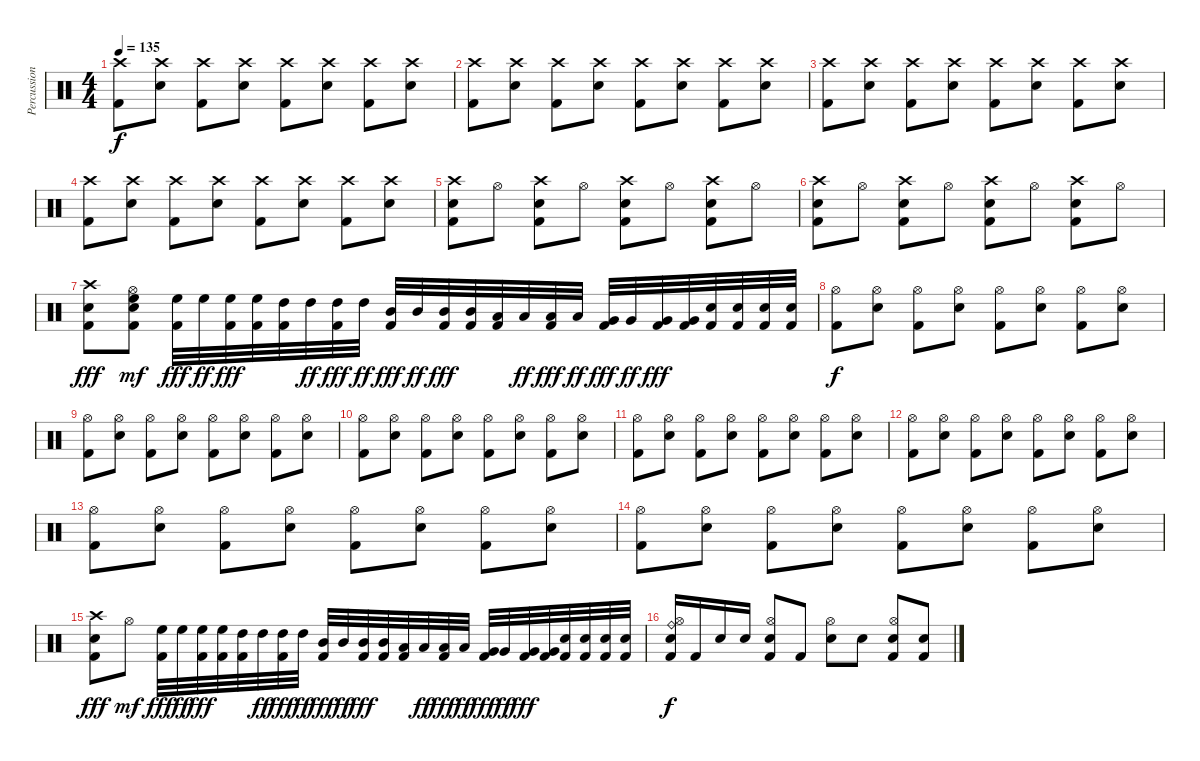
\track ("Percussions" "Percussion") {instrument percussion}
\staff {score}
\articulation defaults
\ts (4 4)
\tempo 135
\clef neutral
\ks c
("Crash high (hit)" "Kick (hit) 2").8{dy f} ("Crash high (hit)" "Electric Snare (hit)").8 ("Crash high (hit)" "Kick (hit) 2").8 ("Crash high (hit)" "Electric Snare (hit)").8 ("Crash high (hit)" "Kick (hit) 2").8 ("Crash high (hit)" "Electric Snare (hit)").8 ("Crash high (hit)" "Kick (hit) 2").8 ("Crash high (hit)" "Electric Snare (hit)").8 |
("Crash high (hit)" "Kick (hit) 2").8 ("Crash high (hit)" "Electric Snare (hit)").8 ("Crash high (hit)" "Kick (hit) 2").8 ("Crash high (hit)" "Electric Snare (hit)").8 ("Crash high (hit)" "Kick (hit) 2").8 ("Crash high (hit)" "Electric Snare (hit)").8 ("Crash high (hit)" "Kick (hit) 2").8 ("Crash high (hit)" "Electric Snare (hit)").8 |
("Crash high (hit)" "Kick (hit) 2").8 ("Crash high (hit)" "Electric Snare (hit)").8 ("Crash high (hit)" "Kick (hit) 2").8 ("Crash high (hit)" "Electric Snare (hit)").8 ("Crash high (hit)" "Kick (hit) 2").8 ("Crash high (hit)" "Electric Snare (hit)").8 ("Crash high (hit)" "Kick (hit) 2").8 ("Crash high (hit)" "Electric Snare (hit)").8 |
("Crash high (hit)" "Kick (hit) 2").8 ("Crash high (hit)" "Electric Snare (hit)").8 ("Crash high (hit)" "Kick (hit) 2").8 ("Crash high (hit)" "Electric Snare (hit)").8 ("Crash high (hit)" "Kick (hit) 2").8 ("Crash high (hit)" "Electric Snare (hit)").8 ("Crash high (hit)" "Kick (hit) 2").8 ("Crash high (hit)" "Electric Snare (hit)").8 |
("Crash high (hit)" "Electric Snare (hit)" "Kick (hit) 2").8 "Hi-Hat (open)".8 ("Crash high (hit)" "Electric Snare (hit)" "Kick (hit) 2").8 "Hi-Hat (open)".8 ("Crash high (hit)" "Electric Snare (hit)" "Kick (hit) 2").8 "Hi-Hat (open)".8 ("Crash high (hit)" "Electric Snare (hit)" "Kick (hit) 2").8 "Hi-Hat (open)".8 |
("Crash high (hit)" "Electric Snare (hit)" "Kick (hit) 2").8 "Hi-Hat (open)".8 ("Crash high (hit)" "Electric Snare (hit)" "Kick (hit) 2").8 "Hi-Hat (open)".8 ("Crash high (hit)" "Electric Snare (hit)" "Kick (hit) 2").8 "Hi-Hat (open)".8 ("Crash high (hit)" "Electric Snare (hit)" "Kick (hit) 2").8 "Hi-Hat (open)".8 |
("Crash high (hit)" "Electric Snare (hit)" "Kick (hit) 2").8{dy fff} ("Hi-Hat (open)" "High Floor Tom (hit)" "Electric Snare (hit)" "Kick (hit) 2").8{dy mf} ("High Floor Tom (hit)" "Kick (hit) 2").32{dy fff} "High Floor Tom (hit)".32{dy ff} ("High Floor Tom (hit)" "Kick (hit) 2").32{dy fff} ("High Floor Tom (hit)" "Kick (hit) 2").32 ("High Tom (hit)" "Kick (hit) 2").32 "High Tom (hit)".32{dy ff} ("High Tom (hit)" "Kick (hit) 2").32{dy fff} "High Tom (hit)".32{dy ff} ("Mid Tom (hit)" "Kick (hit) 2").32{dy fff} "Mid Tom (hit)".32{dy ff} ("Mid Tom (hit)" "Kick (hit) 2").32{dy fff} ("Mid Tom (hit)" "Kick (hit) 2").32 ("Low Tom (hit)" "Kick (hit) 2").32 "Low Tom (hit)".32{dy ff} ("Low Tom (hit)" "Kick (hit) 2").32{dy fff} "Low Tom (hit)".32{dy ff} ("Very Low Tom (hit)" "Kick (hit) 2").32{dy fff} "Very Low Tom (hit)".32{dy ff} ("Very Low Tom (hit)" "Kick (hit) 2").32{dy fff} ("Very Low Tom (hit)" "Kick (hit) 2").32 ("Electric Snare (hit)" "Kick (hit) 2").32 ("Electric Snare (hit)" "Kick (hit) 2").32 ("Electric Snare (hit)" "Kick (hit) 2").32 ("Electric Snare (hit)" "Kick (hit) 2").32 |
("Hi-Hat (open)" "Kick (hit) 2").8{dy f} ("Hi-Hat (open)" "Electric Snare (hit)").8 ("Hi-Hat (open)" "Kick (hit) 2").8 ("Hi-Hat (open)" "Electric Snare (hit)").8 ("Hi-Hat (open)" "Kick (hit) 2").8 ("Hi-Hat (open)" "Electric Snare (hit)").8 ("Hi-Hat (open)" "Kick (hit) 2").8 ("Hi-Hat (open)" "Electric Snare (hit)").8 |
("Hi-Hat (open)" "Kick (hit) 2").8 ("Hi-Hat (open)" "Electric Snare (hit)").8 ("Hi-Hat (open)" "Kick (hit) 2").8 ("Hi-Hat (open)" "Electric Snare (hit)").8 ("Hi-Hat (open)" "Kick (hit) 2").8 ("Hi-Hat (open)" "Electric Snare (hit)").8 ("Hi-Hat (open)" "Kick (hit) 2").8 ("Hi-Hat (open)" "Electric Snare (hit)").8 |
("Hi-Hat (open)" "Kick (hit) 2").8 ("Hi-Hat (open)" "Electric Snare (hit)").8 ("Hi-Hat (open)" "Kick (hit) 2").8 ("Hi-Hat (open)" "Electric Snare (hit)").8 ("Hi-Hat (open)" "Kick (hit) 2").8 ("Hi-Hat (open)" "Electric Snare (hit)").8 ("Hi-Hat (open)" "Kick (hit) 2").8 ("Hi-Hat (open)" "Electric Snare (hit)").8 |
("Hi-Hat (open)" "Kick (hit) 2").8 ("Hi-Hat (open)" "Electric Snare (hit)").8 ("Hi-Hat (open)" "Kick (hit) 2").8 ("Hi-Hat (open)" "Electric Snare (hit)").8 ("Hi-Hat (open)" "Kick (hit) 2").8 ("Hi-Hat (open)" "Electric Snare (hit)").8 ("Hi-Hat (open)" "Kick (hit) 2").8 ("Hi-Hat (open)" "Electric Snare (hit)").8 |
("Hi-Hat (open)" "Kick (hit) 2").8 ("Hi-Hat (open)" "Electric Snare (hit)").8 ("Hi-Hat (open)" "Kick (hit) 2").8 ("Hi-Hat (open)" "Electric Snare (hit)").8 ("Hi-Hat (open)" "Kick (hit) 2").8 ("Hi-Hat (open)" "Electric Snare (hit)").8 ("Hi-Hat (open)" "Kick (hit) 2").8 ("Hi-Hat (open)" "Electric Snare (hit)").8 |
("Hi-Hat (open)" "Kick (hit) 2").8 ("Hi-Hat (open)" "Electric Snare (hit)").8 ("Hi-Hat (open)" "Kick (hit) 2").8 ("Hi-Hat (open)" "Electric Snare (hit)").8 ("Hi-Hat (open)" "Kick (hit) 2").8 ("Hi-Hat (open)" "Electric Snare (hit)").8 ("Hi-Hat (open)" "Kick (hit) 2").8 ("Hi-Hat (open)" "Electric Snare (hit)").8 |
("Hi-Hat (open)" "Kick (hit) 2").8 ("Hi-Hat (open)" "Electric Snare (hit)").8 ("Hi-Hat (open)" "Kick (hit) 2").8 ("Hi-Hat (open)" "Electric Snare (hit)").8 ("Hi-Hat (open)" "Kick (hit) 2").8 ("Hi-Hat (open)" "Electric Snare (hit)").8 ("Hi-Hat (open)" "Kick (hit) 2").8 ("Hi-Hat (open)" "Electric Snare (hit)").8 |
("Crash high (hit)" "Electric Snare (hit)" "Kick (hit) 2").8{dy fff} "Hi-Hat (open)".8{dy mf} ("High Floor Tom (hit)" "Kick (hit) 2").32{dy fff} "High Floor Tom (hit)".32{dy ff} ("High Floor Tom (hit)" "Kick (hit) 2").32{dy fff} ("High Floor Tom (hit)" "Kick (hit) 2").32 ("High Tom (hit)" "Kick (hit) 2").32 "High Tom (hit)".32{dy ff} ("High Tom (hit)" "Kick (hit) 2").32{dy fff} "High Tom (hit)".32{dy ff} ("Mid Tom (hit)" "Kick (hit) 2").32{dy fff} "Mid Tom (hit)".32{dy ff} ("Mid Tom (hit)" "Kick (hit) 2").32{dy fff} ("Mid Tom (hit)" "Kick (hit) 2").32 ("Low Tom (hit)" "Kick (hit) 2").32 "Low Tom (hit)".32{dy ff} ("Low Tom (hit)" "Kick (hit) 2").32{dy fff} "Low Tom (hit)".32{dy ff} ("Very Low Tom (hit)" "Kick (hit) 2").32{dy fff} "Very Low Tom (hit)".32{dy ff} ("Very Low Tom (hit)" "Kick (hit) 2").32{dy fff} ("Very Low Tom (hit)" "Kick (hit) 2").32 ("Electric Snare (hit)" "Kick (hit) 2").32 ("Electric Snare (hit)" "Kick (hit) 2").32 ("Electric Snare (hit)" "Kick (hit) 2").32 ("Electric Snare (hit)" "Kick (hit) 2").32 |
("Hi-Hat (open)" "Ride (bell)" "Snare (hit) 2" "Kick (hit) 2").16{dy f} "Kick (hit) 2".16 "Snare (hit) 2".16 "Electric Snare (hit)".16 ("Hi-Hat (open)" "Snare (hit) 2" "Kick (hit) 2").8 "Kick (hit) 2".8 ("Hi-Hat (open)" "Snare (hit) 2").8 "Electric Snare (hit)".8 ("Hi-Hat (open)" "Snare (hit) 2" "Kick (hit) 2").8 ("Electric Snare (hit)" "Kick (hit) 2").8
